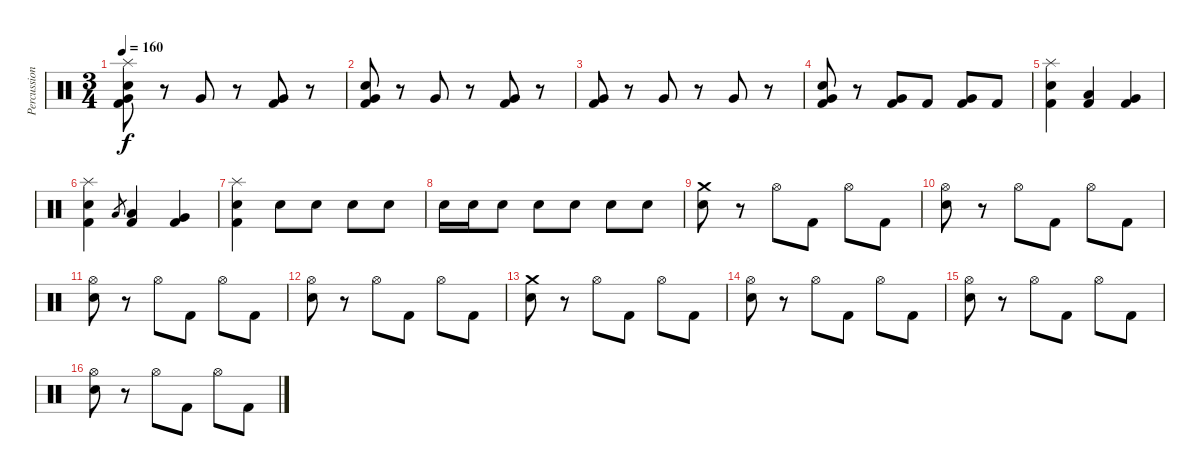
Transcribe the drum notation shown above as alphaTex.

\track ("Percussion" "Percussion") {instrument percussion}
\staff {score}
\articulation defaults
\ts (3 4)
\tempo 160
\clef neutral
\ks c
("Splash (hit)" "Snare (hit) 2" "Kick (hit) 2" "Very Low Tom (hit)").8{dy f} r.8 "Very Low Tom (hit)".8 r.8 ("Kick (hit) 2" "Very Low Tom (hit)").8 r.8 |
("Snare (hit) 2" "Kick (hit) 2" "Very Low Tom (hit)").8 r.8 "Very Low Tom (hit)".8 r.8 ("Kick (hit) 2" "Very Low Tom (hit)").8 r.8 |
("Kick (hit) 2" "Very Low Tom (hit)").8 r.8 "Very Low Tom (hit)".8 r.8 "Very Low Tom (hit)".8 r.8 |
("Snare (hit) 2" "Kick (hit) 2" "Very Low Tom (hit)").8 r.8 ("Kick (hit) 2" "Very Low Tom (hit)").8 "Kick (hit) 2".8 ("Kick (hit) 2" "Very Low Tom (hit)").8 "Kick (hit) 2".8 |
("Splash (hit)" "Snare (hit) 2" "Kick (hit) 2").4 ("Low Tom (hit)" "Kick (hit) 2").4 ("Very Low Tom (hit)" "Kick (hit) 2").4 |
("Splash (hit)" "Snare (hit) 2" "Kick (hit) 2").4 "Low Tom (hit)".8{gr} ("Low Tom (hit)" "Kick (hit) 2").4 ("Very Low Tom (hit)" "Kick (hit) 2").4 |
("Splash (hit)" "Snare (hit) 2" "Kick (hit) 2").4 "Snare (hit) 2".8 "Snare (hit) 2".8 "Snare (hit) 2".8 "Snare (hit) 2".8 |
"Snare (hit) 2".16 "Snare (hit) 2".16 "Snare (hit) 2".8 "Snare (hit) 2".8 "Snare (hit) 2".8 "Snare (hit) 2".8 "Snare (hit) 2".8 |
("Crash medium (hit)" "Snare (hit) 2").8 r.8 "Hi-Hat (open)".8 "Kick (hit) 2".8 "Hi-Hat (open)".8 "Kick (hit) 2".8 |
("Hi-Hat (open)" "Snare (hit) 2").8 r.8 "Hi-Hat (open)".8 "Kick (hit) 2".8 "Hi-Hat (open)".8 "Kick (hit) 2".8 |
("Hi-Hat (open)" "Snare (hit) 2").8 r.8 "Hi-Hat (open)".8 "Kick (hit) 2".8 "Hi-Hat (open)".8 "Kick (hit) 2".8 |
("Hi-Hat (open)" "Snare (hit) 2").8 r.8 "Hi-Hat (open)".8 "Kick (hit) 2".8 "Hi-Hat (open)".8 "Kick (hit) 2".8 |
("Crash medium (hit)" "Snare (hit) 2").8 r.8 "Hi-Hat (open)".8 "Kick (hit) 2".8 "Hi-Hat (open)".8 "Kick (hit) 2".8 |
("Hi-Hat (open)" "Snare (hit) 2").8 r.8 "Hi-Hat (open)".8 "Kick (hit) 2".8 "Hi-Hat (open)".8 "Kick (hit) 2".8 |
("Hi-Hat (open)" "Snare (hit) 2").8 r.8 "Hi-Hat (open)".8 "Kick (hit) 2".8 "Hi-Hat (open)".8 "Kick (hit) 2".8 |
("Hi-Hat (open)" "Snare (hit) 2").8 r.8 "Hi-Hat (open)".8 "Kick (hit) 2".8 "Hi-Hat (open)".8 "Kick (hit) 2".8
